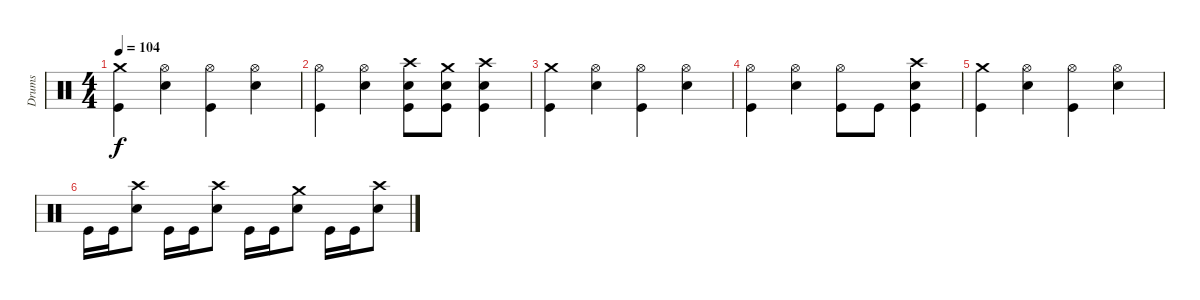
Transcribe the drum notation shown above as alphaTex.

\track ("Drums" "Drums") {instrument percussion}
\staff {score}
\articulation defaults
\ts (4 4)
\tempo 104
\clef neutral
\ks c
("Crash medium (hit)" "Kick (hit)").4{dy f} ("Hi-Hat (open)" "Electric Snare (hit)").4 ("Hi-Hat (open)" "Kick (hit)").4 ("Hi-Hat (open)" "Electric Snare (hit)").4 |
("Hi-Hat (open)" "Kick (hit)").4 ("Hi-Hat (open)" "Electric Snare (hit)").4 ("Crash high (hit)" "Electric Snare (hit)" "Kick (hit)").8 ("Crash medium (hit)" "Electric Snare (hit)" "Kick (hit)").8 ("Crash high (hit)" "Electric Snare (hit)" "Kick (hit)").4 |
("Crash medium (hit)" "Kick (hit)").4 ("Hi-Hat (open)" "Electric Snare (hit)").4 ("Hi-Hat (open)" "Kick (hit)").4 ("Hi-Hat (open)" "Electric Snare (hit)").4 |
("Hi-Hat (open)" "Kick (hit)").4 ("Hi-Hat (open)" "Electric Snare (hit)").4 ("Hi-Hat (open)" "Kick (hit)").8 "Kick (hit)".8 ("Crash high (hit)" "Electric Snare (hit)" "Kick (hit)").4 |
("Crash medium (hit)" "Kick (hit)").4 ("Hi-Hat (open)" "Electric Snare (hit)").4 ("Hi-Hat (open)" "Kick (hit)").4 ("Hi-Hat (open)" "Electric Snare (hit)").4 |
"Kick (hit)".16 "Kick (hit)".16 ("Crash high (hit)" "Electric Snare (hit)").8 "Kick (hit)".16 "Kick (hit)".16 ("Crash high (hit)" "Electric Snare (hit)").8 "Kick (hit)".16 "Kick (hit)".16 ("Crash medium (hit)" "Electric Snare (hit)").8 "Kick (hit)".16 "Kick (hit)".16 ("Crash high (hit)" "Electric Snare (hit)").8
